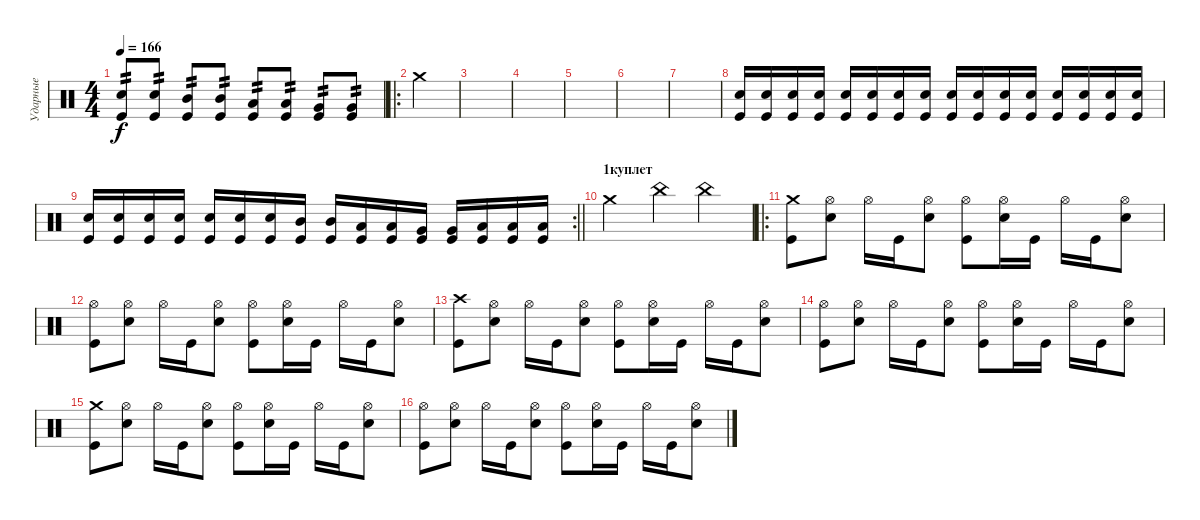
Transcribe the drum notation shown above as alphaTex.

\track ("Ударные" "Ударные") {instrument percussion}
\staff {score}
\articulation defaults
\ts (4 4)
\tempo 166
\clef neutral
\ks c
("Kick (hit)" "Electric Snare (hit)").8{tp 2 dy f} ("Kick (hit)" "Electric Snare (hit)").8{tp 2} ("Kick (hit)" "Mid Tom (hit)").8{tp 2} ("Kick (hit)" "Mid Tom (hit)").8{tp 2} ("Kick (hit)" "Low Tom (hit)").8{tp 2} ("Kick (hit)" "Low Tom (hit)").8{tp 2} ("Kick (hit)" "Very Low Tom (hit)").8{tp 2} ("Kick (hit)" "Very Low Tom (hit)").8{tp 2} |
\ro "Crash medium (hit)".4
|
|
|
|
|
|
("Electric Snare (hit)" "Kick (hit)").16 ("Electric Snare (hit)" "Kick (hit)").16 ("Electric Snare (hit)" "Kick (hit)").16 ("Electric Snare (hit)" "Kick (hit)").16 ("Electric Snare (hit)" "Kick (hit)").16 ("Electric Snare (hit)" "Kick (hit)").16 ("Electric Snare (hit)" "Kick (hit)").16 ("Electric Snare (hit)" "Kick (hit)").16 ("Electric Snare (hit)" "Kick (hit)").16 ("Electric Snare (hit)" "Kick (hit)").16 ("Electric Snare (hit)" "Kick (hit)").16 ("Electric Snare (hit)" "Kick (hit)").16 ("Electric Snare (hit)" "Kick (hit)").16 ("Electric Snare (hit)" "Kick (hit)").16 ("Electric Snare (hit)" "Kick (hit)").16 ("Electric Snare (hit)" "Kick (hit)").16 |
\rc 2
\barLineRight lightlight
("Electric Snare (hit)" "Kick (hit)").16 ("Electric Snare (hit)" "Kick (hit)").16 ("Electric Snare (hit)" "Kick (hit)").16 ("Electric Snare (hit)" "Kick (hit)").16 ("Electric Snare (hit)" "Kick (hit)").16 ("Electric Snare (hit)" "Kick (hit)").16 ("Electric Snare (hit)" "Kick (hit)").16 ("Mid Tom (hit)" "Kick (hit)").16 ("Mid Tom (hit)" "Kick (hit)").16 ("Low Tom (hit)" "Kick (hit)").16 ("Low Tom (hit)" "Kick (hit)").16 ("Very Low Tom (hit)" "Kick (hit)").16 ("Very Low Tom (hit)" "Kick (hit)").16 ("Low Floor Tom (hit)" "Kick (hit)").16 ("Low Floor Tom (hit)" "Kick (hit)").16 ("Low Floor Tom (hit)" "Kick (hit)").16 |
\section ("" "1куплет")
"Crash medium (hit)".2 "China (hit)".4 "China (hit)".4 |
\ro
("Kick (hit)" "Crash medium (hit)").8 ("Electric Snare (hit)" "Hi-Hat (open)").8 "Hi-Hat (open)".16 "Kick (hit)".16 ("Electric Snare (hit)" "Hi-Hat (open)").8 ("Kick (hit)" "Hi-Hat (open)").8 ("Electric Snare (hit)" "Hi-Hat (open)").16 "Kick (hit)".16 "Hi-Hat (open)".16 "Kick (hit)".16 ("Electric Snare (hit)" "Hi-Hat (open)").8 |
("Kick (hit)" "Hi-Hat (open)").8 ("Electric Snare (hit)" "Hi-Hat (open)").8 "Hi-Hat (open)".16 "Kick (hit)".16 ("Electric Snare (hit)" "Hi-Hat (open)").8 ("Kick (hit)" "Hi-Hat (open)").8 ("Electric Snare (hit)" "Hi-Hat (open)").16 "Kick (hit)".16 "Hi-Hat (open)".16 "Kick (hit)".16 ("Electric Snare (hit)" "Hi-Hat (open)").8 |
("Kick (hit)" "Crash high (hit)").8 ("Electric Snare (hit)" "Hi-Hat (open)").8 "Hi-Hat (open)".16 "Kick (hit)".16 ("Electric Snare (hit)" "Hi-Hat (open)").8 ("Kick (hit)" "Hi-Hat (open)").8 ("Electric Snare (hit)" "Hi-Hat (open)").16 "Kick (hit)".16 "Hi-Hat (open)".16 "Kick (hit)".16 ("Electric Snare (hit)" "Hi-Hat (open)").8 |
("Kick (hit)" "Hi-Hat (open)").8 ("Electric Snare (hit)" "Hi-Hat (open)").8 "Hi-Hat (open)".16 "Kick (hit)".16 ("Electric Snare (hit)" "Hi-Hat (open)").8 ("Kick (hit)" "Hi-Hat (open)").8 ("Electric Snare (hit)" "Hi-Hat (open)").16 "Kick (hit)".16 "Hi-Hat (open)".16 "Kick (hit)".16 ("Electric Snare (hit)" "Hi-Hat (open)").8 |
("Kick (hit)" "Crash medium (hit)").8 ("Electric Snare (hit)" "Hi-Hat (open)").8 "Hi-Hat (open)".16 "Kick (hit)".16 ("Electric Snare (hit)" "Hi-Hat (open)").8 ("Kick (hit)" "Hi-Hat (open)").8 ("Electric Snare (hit)" "Hi-Hat (open)").16 "Kick (hit)".16 "Hi-Hat (open)".16 "Kick (hit)".16 ("Electric Snare (hit)" "Hi-Hat (open)").8 |
("Kick (hit)" "Hi-Hat (open)").8 ("Electric Snare (hit)" "Hi-Hat (open)").8 "Hi-Hat (open)".16 "Kick (hit)".16 ("Electric Snare (hit)" "Hi-Hat (open)").8 ("Kick (hit)" "Hi-Hat (open)").8 ("Electric Snare (hit)" "Hi-Hat (open)").16 "Kick (hit)".16 "Hi-Hat (open)".16 "Kick (hit)".16 ("Electric Snare (hit)" "Hi-Hat (open)").8
